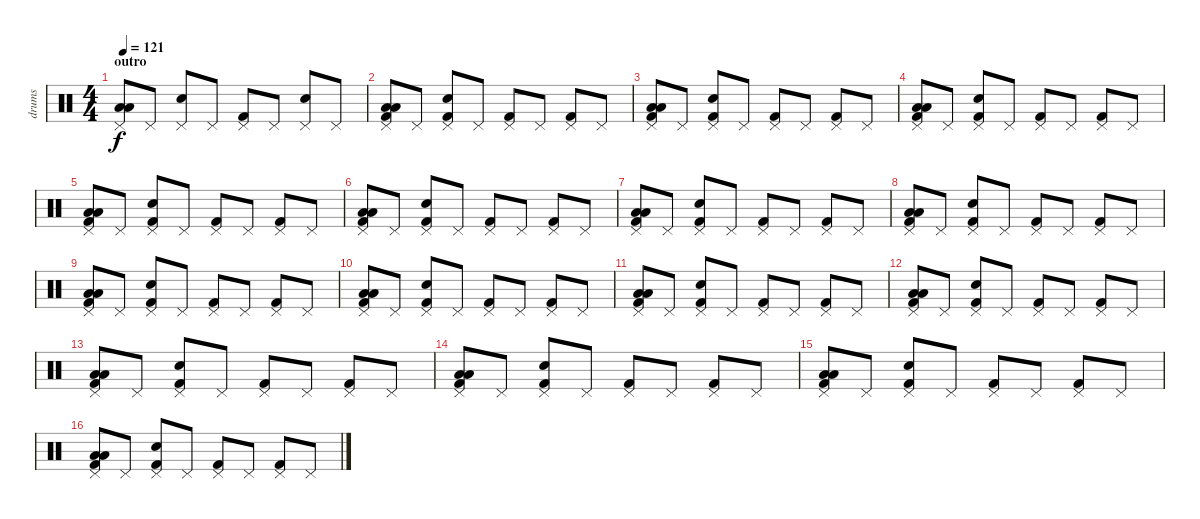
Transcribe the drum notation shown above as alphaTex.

\track ("drums" "drums") {instrument percussion}
\staff {score}
\articulation defaults
\ts (4 4)
\section ("" "outro")
\tempo 121
\clef neutral
\ks c
("Low Floor Tom (hit)" "Low Floor Tom (hit)" "Pedal Hi-Hat (hit)").8{dy f} "Pedal Hi-Hat (hit)".8 ("Hand Clap (hit)" "Pedal Hi-Hat (hit)").8 "Pedal Hi-Hat (hit)".8 ("Kick (hit) 2" "Pedal Hi-Hat (hit)").8 "Pedal Hi-Hat (hit)".8 ("Snare (hit) 2" "Pedal Hi-Hat (hit)").8 "Pedal Hi-Hat (hit)".8 |
("Low Floor Tom (hit)" "Low Floor Tom (hit)" "Kick (hit) 2" "Pedal Hi-Hat (hit)").8 "Pedal Hi-Hat (hit)".8 ("Hand Clap (hit)" "Kick (hit) 2" "Pedal Hi-Hat (hit)").8 "Pedal Hi-Hat (hit)".8 ("Kick (hit) 2" "Pedal Hi-Hat (hit)").8 "Pedal Hi-Hat (hit)".8 ("Kick (hit) 2" "Pedal Hi-Hat (hit)").8 "Pedal Hi-Hat (hit)".8 |
("Low Floor Tom (hit)" "Low Floor Tom (hit)" "Kick (hit) 2" "Pedal Hi-Hat (hit)").8 "Pedal Hi-Hat (hit)".8 ("Hand Clap (hit)" "Kick (hit) 2" "Pedal Hi-Hat (hit)").8 "Pedal Hi-Hat (hit)".8 ("Kick (hit) 2" "Pedal Hi-Hat (hit)").8 "Pedal Hi-Hat (hit)".8 ("Kick (hit) 2" "Pedal Hi-Hat (hit)").8 "Pedal Hi-Hat (hit)".8 |
("Low Floor Tom (hit)" "Low Floor Tom (hit)" "Kick (hit) 2" "Pedal Hi-Hat (hit)").8 "Pedal Hi-Hat (hit)".8 ("Hand Clap (hit)" "Kick (hit) 2" "Pedal Hi-Hat (hit)").8 "Pedal Hi-Hat (hit)".8 ("Kick (hit) 2" "Pedal Hi-Hat (hit)").8 "Pedal Hi-Hat (hit)".8 ("Kick (hit) 2" "Pedal Hi-Hat (hit)").8 "Pedal Hi-Hat (hit)".8 |
("Low Floor Tom (hit)" "Low Floor Tom (hit)" "Kick (hit) 2" "Pedal Hi-Hat (hit)").8 "Pedal Hi-Hat (hit)".8 ("Hand Clap (hit)" "Kick (hit) 2" "Pedal Hi-Hat (hit)").8 "Pedal Hi-Hat (hit)".8 ("Kick (hit) 2" "Pedal Hi-Hat (hit)").8 "Pedal Hi-Hat (hit)".8 ("Kick (hit) 2" "Pedal Hi-Hat (hit)").8 "Pedal Hi-Hat (hit)".8 |
("Low Floor Tom (hit)" "Low Floor Tom (hit)" "Kick (hit) 2" "Pedal Hi-Hat (hit)").8 "Pedal Hi-Hat (hit)".8 ("Hand Clap (hit)" "Kick (hit) 2" "Pedal Hi-Hat (hit)").8 "Pedal Hi-Hat (hit)".8 ("Kick (hit) 2" "Pedal Hi-Hat (hit)").8 "Pedal Hi-Hat (hit)".8 ("Kick (hit) 2" "Pedal Hi-Hat (hit)").8 "Pedal Hi-Hat (hit)".8 |
("Low Floor Tom (hit)" "Low Floor Tom (hit)" "Kick (hit) 2" "Pedal Hi-Hat (hit)").8 "Pedal Hi-Hat (hit)".8 ("Hand Clap (hit)" "Kick (hit) 2" "Pedal Hi-Hat (hit)").8 "Pedal Hi-Hat (hit)".8 ("Kick (hit) 2" "Pedal Hi-Hat (hit)").8 "Pedal Hi-Hat (hit)".8 ("Kick (hit) 2" "Pedal Hi-Hat (hit)").8 "Pedal Hi-Hat (hit)".8 |
("Low Floor Tom (hit)" "Low Floor Tom (hit)" "Kick (hit) 2" "Pedal Hi-Hat (hit)").8 "Pedal Hi-Hat (hit)".8 ("Hand Clap (hit)" "Kick (hit) 2" "Pedal Hi-Hat (hit)").8 "Pedal Hi-Hat (hit)".8 ("Kick (hit) 2" "Pedal Hi-Hat (hit)").8 "Pedal Hi-Hat (hit)".8 ("Kick (hit) 2" "Pedal Hi-Hat (hit)").8 "Pedal Hi-Hat (hit)".8 |
("Low Floor Tom (hit)" "Low Floor Tom (hit)" "Kick (hit) 2" "Pedal Hi-Hat (hit)").8 "Pedal Hi-Hat (hit)".8 ("Hand Clap (hit)" "Kick (hit) 2" "Pedal Hi-Hat (hit)").8 "Pedal Hi-Hat (hit)".8 ("Kick (hit) 2" "Pedal Hi-Hat (hit)").8 "Pedal Hi-Hat (hit)".8 ("Kick (hit) 2" "Pedal Hi-Hat (hit)").8 "Pedal Hi-Hat (hit)".8 |
("Low Floor Tom (hit)" "Low Floor Tom (hit)" "Kick (hit) 2" "Pedal Hi-Hat (hit)").8 "Pedal Hi-Hat (hit)".8 ("Hand Clap (hit)" "Kick (hit) 2" "Pedal Hi-Hat (hit)").8 "Pedal Hi-Hat (hit)".8 ("Kick (hit) 2" "Pedal Hi-Hat (hit)").8 "Pedal Hi-Hat (hit)".8 ("Kick (hit) 2" "Pedal Hi-Hat (hit)").8 "Pedal Hi-Hat (hit)".8 |
("Low Floor Tom (hit)" "Low Floor Tom (hit)" "Kick (hit) 2" "Pedal Hi-Hat (hit)").8 "Pedal Hi-Hat (hit)".8 ("Hand Clap (hit)" "Kick (hit) 2" "Pedal Hi-Hat (hit)").8 "Pedal Hi-Hat (hit)".8 ("Kick (hit) 2" "Pedal Hi-Hat (hit)").8 "Pedal Hi-Hat (hit)".8 ("Kick (hit) 2" "Pedal Hi-Hat (hit)").8 "Pedal Hi-Hat (hit)".8 |
("Low Floor Tom (hit)" "Low Floor Tom (hit)" "Kick (hit) 2" "Pedal Hi-Hat (hit)").8 "Pedal Hi-Hat (hit)".8 ("Hand Clap (hit)" "Kick (hit) 2" "Pedal Hi-Hat (hit)").8 "Pedal Hi-Hat (hit)".8 ("Kick (hit) 2" "Pedal Hi-Hat (hit)").8 "Pedal Hi-Hat (hit)".8 ("Kick (hit) 2" "Pedal Hi-Hat (hit)").8 "Pedal Hi-Hat (hit)".8 |
("Low Floor Tom (hit)" "Low Floor Tom (hit)" "Kick (hit) 2" "Pedal Hi-Hat (hit)").8 "Pedal Hi-Hat (hit)".8 ("Hand Clap (hit)" "Kick (hit) 2" "Pedal Hi-Hat (hit)").8 "Pedal Hi-Hat (hit)".8 ("Kick (hit) 2" "Pedal Hi-Hat (hit)").8 "Pedal Hi-Hat (hit)".8 ("Kick (hit) 2" "Pedal Hi-Hat (hit)").8 "Pedal Hi-Hat (hit)".8 |
("Low Floor Tom (hit)" "Low Floor Tom (hit)" "Kick (hit) 2" "Pedal Hi-Hat (hit)").8 "Pedal Hi-Hat (hit)".8 ("Hand Clap (hit)" "Kick (hit) 2" "Pedal Hi-Hat (hit)").8 "Pedal Hi-Hat (hit)".8 ("Kick (hit) 2" "Pedal Hi-Hat (hit)").8 "Pedal Hi-Hat (hit)".8 ("Kick (hit) 2" "Pedal Hi-Hat (hit)").8 "Pedal Hi-Hat (hit)".8 |
("Low Floor Tom (hit)" "Low Floor Tom (hit)" "Kick (hit) 2" "Pedal Hi-Hat (hit)").8 "Pedal Hi-Hat (hit)".8 ("Hand Clap (hit)" "Kick (hit) 2" "Pedal Hi-Hat (hit)").8 "Pedal Hi-Hat (hit)".8 ("Kick (hit) 2" "Pedal Hi-Hat (hit)").8 "Pedal Hi-Hat (hit)".8 ("Kick (hit) 2" "Pedal Hi-Hat (hit)").8 "Pedal Hi-Hat (hit)".8 |
("Low Floor Tom (hit)" "Low Floor Tom (hit)" "Kick (hit) 2" "Pedal Hi-Hat (hit)").8 "Pedal Hi-Hat (hit)".8 ("Hand Clap (hit)" "Kick (hit) 2" "Pedal Hi-Hat (hit)").8 "Pedal Hi-Hat (hit)".8 ("Kick (hit) 2" "Pedal Hi-Hat (hit)").8 "Pedal Hi-Hat (hit)".8 ("Kick (hit) 2" "Pedal Hi-Hat (hit)").8 "Pedal Hi-Hat (hit)".8
